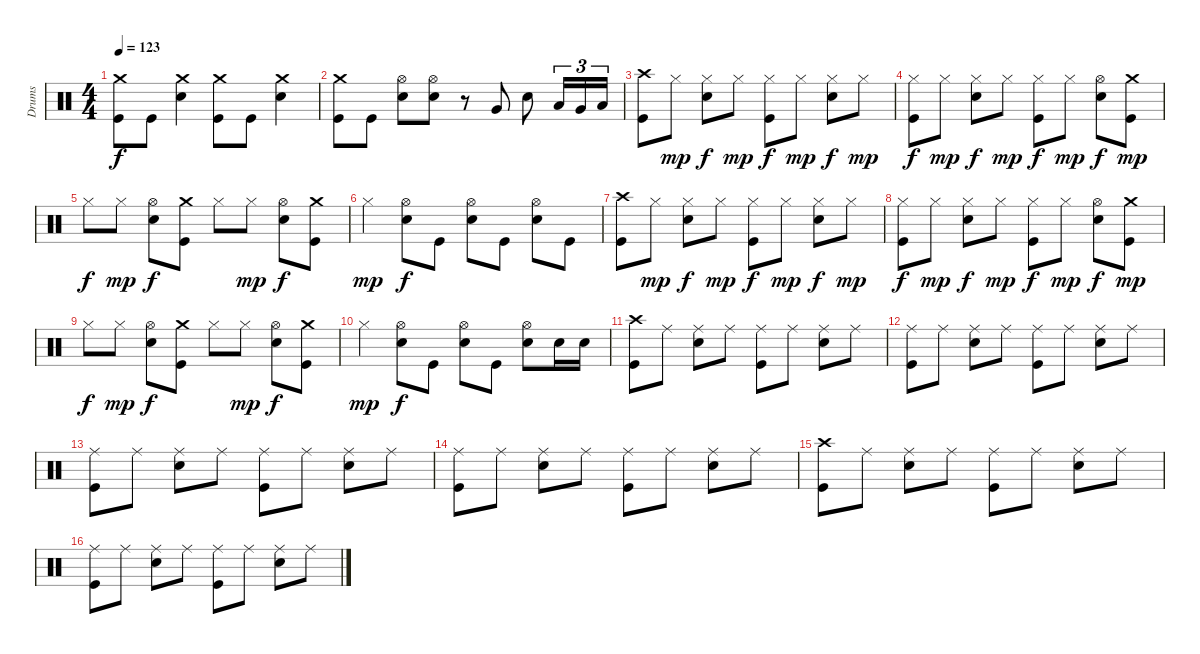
\track ("Drums" "Drums") {instrument percussion}
\staff {score}
\articulation defaults
\ts (4 4)
\tempo 123
\clef neutral
\ks c
("Crash medium (hit)" "Kick (hit)").8{dy f} "Kick (hit)".8 ("Crash medium (hit)" "Snare (hit) 2").4 ("Crash medium (hit)" "Kick (hit)").8 "Kick (hit)".8 ("Crash medium (hit)" "Snare (hit) 2").4 |
("Crash medium (hit)" "Kick (hit)").8 "Kick (hit)".8 ("Hi-Hat (open)" "Snare (hit) 2").8 ("Hi-Hat (open)" "Snare (hit) 2").8 r.8 "Very Low Tom (hit)".8 "Snare (hit) 2".8 "Low Tom (hit)".16{tu (3 2)} "Very Low Tom (hit)".16{tu (3 2)} "Low Floor Tom (hit)".16{tu (3 2)} |
("Crash high (hit)" "Kick (hit)").8 "Hi-Hat (closed)".8{dy mp} ("Hi-Hat (closed)" "Snare (hit) 2").8{dy f} "Hi-Hat (closed)".8{dy mp} ("Hi-Hat (closed)" "Kick (hit)").8{dy f} "Hi-Hat (closed)".8{dy mp} ("Hi-Hat (closed)" "Snare (hit) 2").8{dy f} "Hi-Hat (closed)".8{dy mp} |
("Hi-Hat (closed)" "Kick (hit)").8{dy f} "Hi-Hat (closed)".8{dy mp} ("Hi-Hat (closed)" "Snare (hit) 2").8{dy f} "Hi-Hat (closed)".8{dy mp} ("Hi-Hat (closed)" "Kick (hit)").8{dy f} "Hi-Hat (closed)".8{dy mp} ("Hi-Hat (open)" "Snare (hit) 2").8{dy f} ("Crash medium (hit)" "Kick (hit)").8{dy mp} |
"Hi-Hat (closed)".8{dy f} "Hi-Hat (closed)".8{dy mp} ("Hi-Hat (open)" "Snare (hit) 2").8{dy f} ("Crash medium (hit)" "Kick (hit)").8 "Hi-Hat (closed)".8 "Hi-Hat (closed)".8{dy mp} ("Hi-Hat (open)" "Snare (hit) 2").8{dy f} ("Crash medium (hit)" "Kick (hit)").8 |
"Hi-Hat (closed)".4{dy mp} ("Hi-Hat (open)" "Snare (hit) 2").8{dy f} "Kick (hit)".8 ("Hi-Hat (open)" "Snare (hit) 2").8 "Kick (hit)".8 ("Hi-Hat (open)" "Snare (hit) 2").8 "Kick (hit)".8 |
("Crash high (hit)" "Kick (hit)").8 "Hi-Hat (closed)".8{dy mp} ("Hi-Hat (closed)" "Snare (hit) 2").8{dy f} "Hi-Hat (closed)".8{dy mp} ("Hi-Hat (closed)" "Kick (hit)").8{dy f} "Hi-Hat (closed)".8{dy mp} ("Hi-Hat (closed)" "Snare (hit) 2").8{dy f} "Hi-Hat (closed)".8{dy mp} |
("Hi-Hat (closed)" "Kick (hit)").8{dy f} "Hi-Hat (closed)".8{dy mp} ("Hi-Hat (closed)" "Snare (hit) 2").8{dy f} "Hi-Hat (closed)".8{dy mp} ("Hi-Hat (closed)" "Kick (hit)").8{dy f} "Hi-Hat (closed)".8{dy mp} ("Hi-Hat (open)" "Snare (hit) 2").8{dy f} ("Crash medium (hit)" "Kick (hit)").8{dy mp} |
"Hi-Hat (closed)".8{dy f} "Hi-Hat (closed)".8{dy mp} ("Hi-Hat (open)" "Snare (hit) 2").8{dy f} ("Crash medium (hit)" "Kick (hit)").8 "Hi-Hat (closed)".8 "Hi-Hat (closed)".8{dy mp} ("Hi-Hat (open)" "Snare (hit) 2").8{dy f} ("Crash medium (hit)" "Kick (hit)").8 |
"Hi-Hat (closed)".4{dy mp} ("Hi-Hat (open)" "Snare (hit) 2").8{dy f} "Kick (hit)".8 ("Hi-Hat (open)" "Snare (hit) 2").8 "Kick (hit)".8 ("Hi-Hat (open)" "Snare (hit) 2").8 "Snare (hit) 2".16 "Snare (hit) 2".16 |
("Crash high (hit)" "Kick (hit)").8 "Ride (middle)".8 ("Ride (middle)" "Snare (hit) 2").8 "Ride (middle)".8 ("Ride (middle)" "Kick (hit)").8 "Ride (middle)".8 ("Ride (middle)" "Snare (hit) 2").8 "Ride (middle)".8 |
("Ride (middle)" "Kick (hit)").8 "Ride (middle)".8 ("Ride (middle)" "Snare (hit) 2").8 "Ride (middle)".8 ("Ride (middle)" "Kick (hit)").8 "Ride (middle)".8 ("Ride (middle)" "Snare (hit) 2").8 "Ride (middle)".8 |
("Ride (middle)" "Kick (hit)").8 "Ride (middle)".8 ("Ride (middle)" "Snare (hit) 2").8 "Ride (middle)".8 ("Ride (middle)" "Kick (hit)").8 "Ride (middle)".8 ("Ride (middle)" "Snare (hit) 2").8 "Ride (middle)".8 |
("Ride (middle)" "Kick (hit)").8 "Ride (middle)".8 ("Ride (middle)" "Snare (hit) 2").8 "Ride (middle)".8 ("Ride (middle)" "Kick (hit)").8 "Ride (middle)".8 ("Ride (middle)" "Snare (hit) 2").8 "Ride (middle)".8 |
("Crash high (hit)" "Kick (hit)").8 "Ride (middle)".8 ("Ride (middle)" "Snare (hit) 2").8 "Ride (middle)".8 ("Ride (middle)" "Kick (hit)").8 "Ride (middle)".8 ("Ride (middle)" "Snare (hit) 2").8 "Ride (middle)".8 |
("Ride (middle)" "Kick (hit)").8 "Ride (middle)".8 ("Ride (middle)" "Snare (hit) 2").8 "Ride (middle)".8 ("Ride (middle)" "Kick (hit)").8 "Ride (middle)".8 ("Ride (middle)" "Snare (hit) 2").8 "Ride (middle)".8
